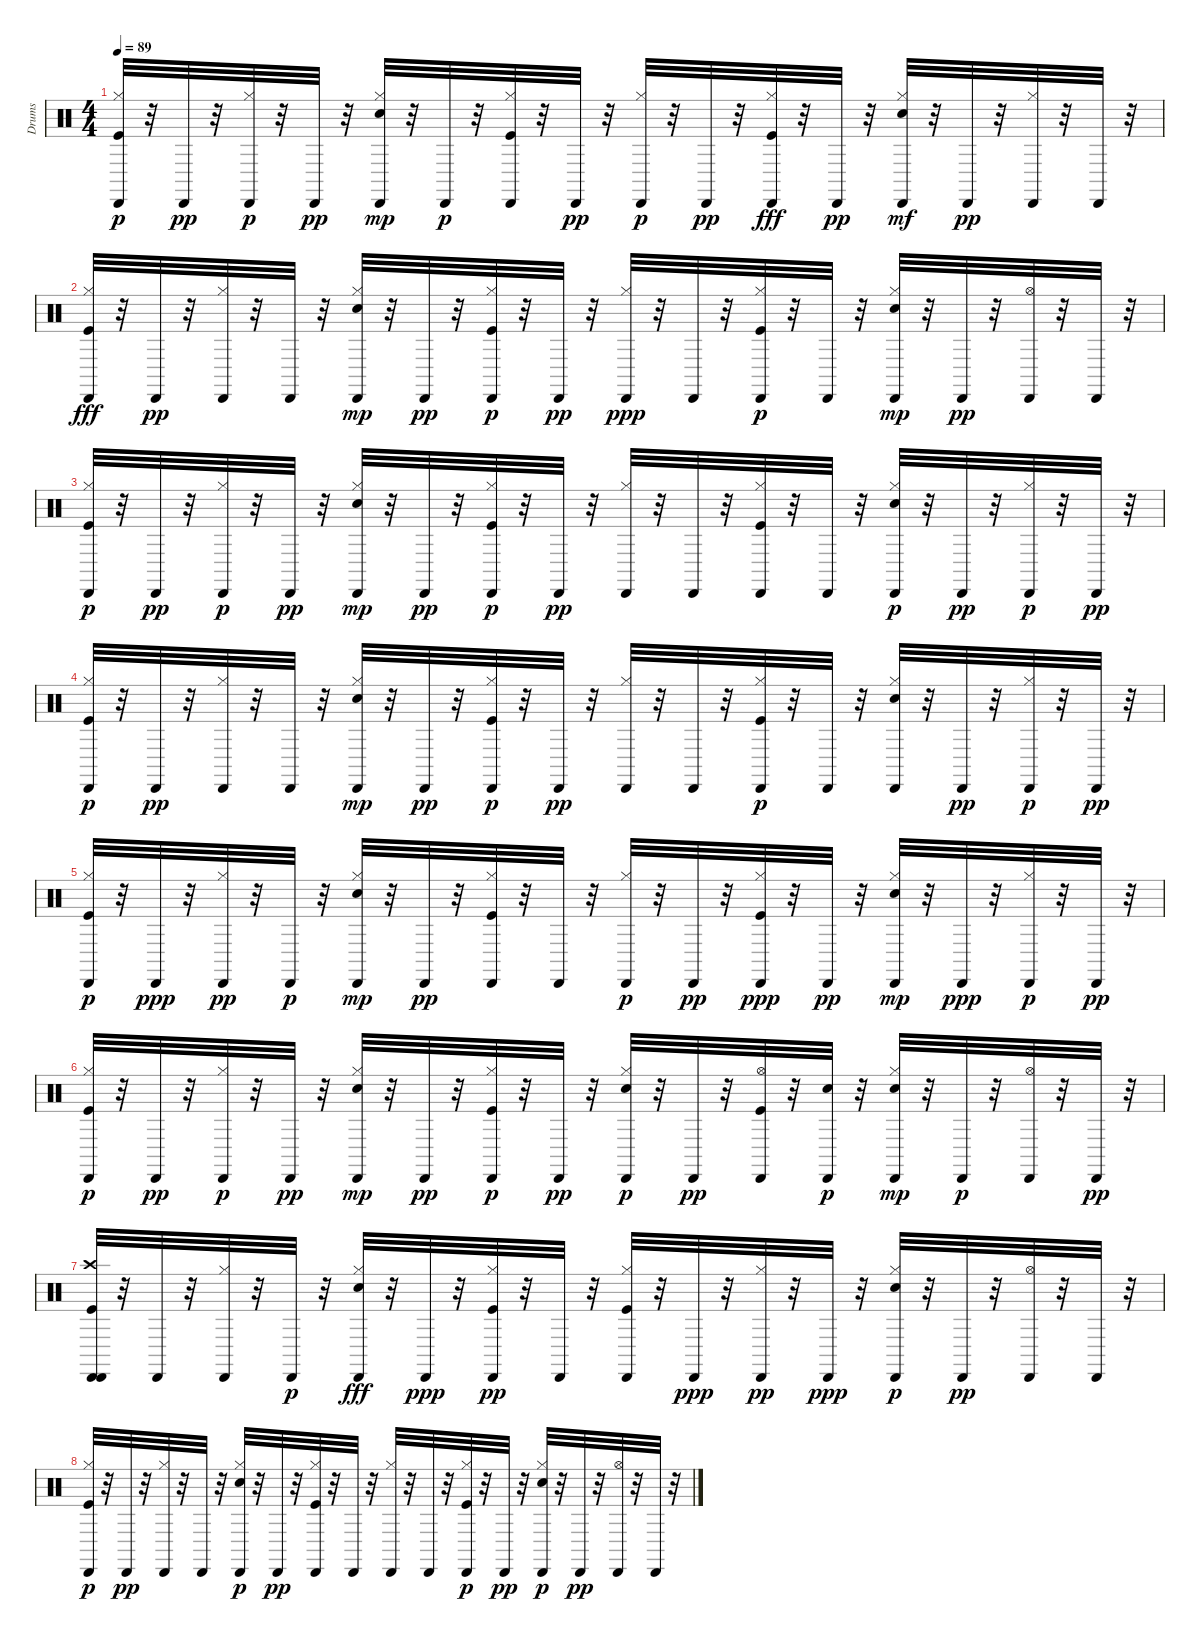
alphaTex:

\track ("Drums" "Drums") {instrument percussion}
\staff {score}
\articulation defaults
\ts (4 4)
\tempo 89
\clef neutral
\ks c
("Hi-Hat (closed)" "Kick (hit)" "Cabasa (hit)").32{dy p} r.32 "Cabasa (hit)".32{dy pp} r.32 ("Hi-Hat (closed)" "Cabasa (hit)").32{dy p} r.32 "Cabasa (hit)".32{dy pp} r.32 ("Electric Snare (hit)" "Hi-Hat (closed)" "Cabasa (hit)").32{dy mp} r.32 "Cabasa (hit)".32{dy p} r.32 ("Hi-Hat (closed)" "Kick (hit)" "Cabasa (hit)").32 r.32 "Cabasa (hit)".32{dy pp} r.32 ("Cabasa (hit)" "Hi-Hat (closed)").32{dy p} r.32 "Cabasa (hit)".32{dy pp} r.32 ("Cabasa (hit)" "Hi-Hat (closed)" "Kick (hit)").32{dy fff} r.32 "Cabasa (hit)".32{dy pp} r.32 ("Cabasa (hit)" "Electric Snare (hit)" "Hi-Hat (closed)").32{dy mf} r.32 "Cabasa (hit)".32{dy pp} r.32 ("Hi-Hat (closed)" "Cabasa (hit)").32 r.32 "Cabasa (hit)".32 r.32 |
("Hi-Hat (closed)" "Cabasa (hit)" "Kick (hit)").32{dy fff} r.32 "Cabasa (hit)".32{dy pp} r.32 ("Hi-Hat (closed)" "Cabasa (hit)").32 r.32 "Cabasa (hit)".32 r.32 ("Hi-Hat (closed)" "Electric Snare (hit)" "Cabasa (hit)").32{dy mp} r.32 "Cabasa (hit)".32{dy pp} r.32 ("Kick (hit)" "Hi-Hat (closed)" "Cabasa (hit)").32{dy p} r.32 "Cabasa (hit)".32{dy pp} r.32 ("Hi-Hat (closed)" "Cabasa (hit)").32{dy ppp} r.32 "Cabasa (hit)".32 r.32 ("Hi-Hat (closed)" "Kick (hit)" "Cabasa (hit)").32{dy p} r.32 "Cabasa (hit)".32 r.32 ("Electric Snare (hit)" "Hi-Hat (closed)" "Cabasa (hit)").32{dy mp} r.32 "Cabasa (hit)".32{dy pp} r.32 ("Hi-Hat (open)" "Cabasa (hit)").32 r.32 "Cabasa (hit)".32 r.32 |
("Kick (hit)" "Cabasa (hit)" "Hi-Hat (closed)").32{dy p} r.32 "Cabasa (hit)".32{dy pp} r.32 ("Hi-Hat (closed)" "Cabasa (hit)").32{dy p} r.32 "Cabasa (hit)".32{dy pp} r.32 ("Electric Snare (hit)" "Hi-Hat (closed)" "Cabasa (hit)").32{dy mp} r.32 "Cabasa (hit)".32{dy pp} r.32 ("Hi-Hat (closed)" "Kick (hit)" "Cabasa (hit)").32{dy p} r.32 "Cabasa (hit)".32{dy pp} r.32 ("Hi-Hat (closed)" "Cabasa (hit)").32 r.32 "Cabasa (hit)".32 r.32 ("Kick (hit)" "Hi-Hat (closed)" "Cabasa (hit)").32 r.32 "Cabasa (hit)".32 r.32 ("Hi-Hat (closed)" "Electric Snare (hit)" "Cabasa (hit)").32{dy p} r.32 "Cabasa (hit)".32{dy pp} r.32 ("Hi-Hat (closed)" "Cabasa (hit)").32{dy p} r.32 "Cabasa (hit)".32{dy pp} r.32 |
("Kick (hit)" "Hi-Hat (closed)" "Cabasa (hit)").32{dy p} r.32 "Cabasa (hit)".32{dy pp} r.32 ("Hi-Hat (closed)" "Cabasa (hit)").32 r.32 "Cabasa (hit)".32 r.32 ("Electric Snare (hit)" "Hi-Hat (closed)" "Cabasa (hit)").32{dy mp} r.32 "Cabasa (hit)".32{dy pp} r.32 ("Kick (hit)" "Hi-Hat (closed)" "Cabasa (hit)").32{dy p} r.32 "Cabasa (hit)".32{dy pp} r.32 ("Hi-Hat (closed)" "Cabasa (hit)").32 r.32 "Cabasa (hit)".32 r.32 ("Kick (hit)" "Hi-Hat (closed)" "Cabasa (hit)").32{dy p} r.32 "Cabasa (hit)".32 r.32 ("Electric Snare (hit)" "Hi-Hat (closed)" "Cabasa (hit)").32 r.32 "Cabasa (hit)".32{dy pp} r.32 ("Hi-Hat (closed)" "Cabasa (hit)").32{dy p} r.32 "Cabasa (hit)".32{dy pp} r.32 |
("Hi-Hat (closed)" "Kick (hit)" "Cabasa (hit)").32{dy p} r.32 "Cabasa (hit)".32{dy ppp} r.32 ("Hi-Hat (closed)" "Cabasa (hit)").32{dy pp} r.32 "Cabasa (hit)".32{dy p} r.32 ("Hi-Hat (closed)" "Electric Snare (hit)" "Cabasa (hit)").32{dy mp} r.32 "Cabasa (hit)".32{dy pp} r.32 ("Hi-Hat (closed)" "Kick (hit)" "Cabasa (hit)").32 r.32 "Cabasa (hit)".32 r.32 ("Hi-Hat (closed)" "Cabasa (hit)").32{dy p} r.32 "Cabasa (hit)".32{dy pp} r.32 ("Kick (hit)" "Hi-Hat (closed)" "Cabasa (hit)").32{dy ppp} r.32 "Cabasa (hit)".32{dy pp} r.32 ("Electric Snare (hit)" "Hi-Hat (closed)" "Cabasa (hit)").32{dy mp} r.32 "Cabasa (hit)".32{dy ppp} r.32 ("Hi-Hat (closed)" "Cabasa (hit)").32{dy p} r.32 "Cabasa (hit)".32{dy pp} r.32 |
("Kick (hit)" "Hi-Hat (closed)" "Cabasa (hit)").32{dy p} r.32 "Cabasa (hit)".32{dy pp} r.32 ("Hi-Hat (closed)" "Cabasa (hit)").32{dy p} r.32 "Cabasa (hit)".32{dy pp} r.32 ("Electric Snare (hit)" "Hi-Hat (closed)" "Cabasa (hit)").32{dy mp} r.32 "Cabasa (hit)".32{dy pp} r.32 ("Hi-Hat (closed)" "Kick (hit)" "Cabasa (hit)").32{dy p} r.32 "Cabasa (hit)".32{dy pp} r.32 ("Electric Snare (hit)" "Hi-Hat (closed)" "Cabasa (hit)").32{dy p} r.32 "Cabasa (hit)".32{dy pp} r.32 ("Kick (hit)" "Hi-Hat (open)" "Cabasa (hit)").32 r.32 ("Electric Snare (hit)" "Cabasa (hit)").32{dy p} r.32 ("Hi-Hat (closed)" "Electric Snare (hit)" "Cabasa (hit)").32{dy mp} r.32 "Cabasa (hit)".32{dy p} r.32 ("Hi-Hat (open)" "Cabasa (hit)").32 r.32 "Cabasa (hit)".32{dy pp} r.32 |
("Crash high (hit)" "Kick (hit)" "Cabasa (hit)" "Cabasa (hit)").32 r.32 "Cabasa (hit)".32 r.32 ("Hi-Hat (closed)" "Cabasa (hit)").32 r.32 "Cabasa (hit)".32{dy p} r.32 ("Hi-Hat (closed)" "Cabasa (hit)" "Electric Snare (hit)").32{dy fff} r.32 "Cabasa (hit)".32{dy ppp} r.32 ("Hi-Hat (closed)" "Kick (hit)" "Cabasa (hit)").32{dy pp} r.32 "Cabasa (hit)".32 r.32 ("Kick (hit)" "Hi-Hat (closed)" "Cabasa (hit)").32 r.32 "Cabasa (hit)".32{dy ppp} r.32 ("Hi-Hat (closed)" "Cabasa (hit)").32{dy pp} r.32 "Cabasa (hit)".32{dy ppp} r.32 ("Hi-Hat (closed)" "Electric Snare (hit)" "Cabasa (hit)").32{dy p} r.32 "Cabasa (hit)".32{dy pp} r.32 ("Hi-Hat (open)" "Cabasa (hit)").32 r.32 "Cabasa (hit)".32 r.32 |
("Kick (hit)" "Hi-Hat (closed)" "Cabasa (hit)").32{dy p} r.32 "Cabasa (hit)".32{dy pp} r.32 ("Hi-Hat (closed)" "Cabasa (hit)").32 r.32 "Cabasa (hit)".32 r.32 ("Hi-Hat (closed)" "Electric Snare (hit)" "Cabasa (hit)").32{dy p} r.32 "Cabasa (hit)".32{dy pp} r.32 ("Kick (hit)" "Hi-Hat (closed)" "Cabasa (hit)").32 r.32 "Cabasa (hit)".32 r.32 ("Hi-Hat (closed)" "Cabasa (hit)").32 r.32 "Cabasa (hit)".32 r.32 ("Hi-Hat (closed)" "Kick (hit)" "Cabasa (hit)").32{dy p} r.32 "Cabasa (hit)".32{dy pp} r.32 ("Hi-Hat (closed)" "Electric Snare (hit)" "Cabasa (hit)").32{dy p} r.32 "Cabasa (hit)".32{dy pp} r.32 ("Hi-Hat (open)" "Cabasa (hit)").32 r.32 "Cabasa (hit)".32 r.32
